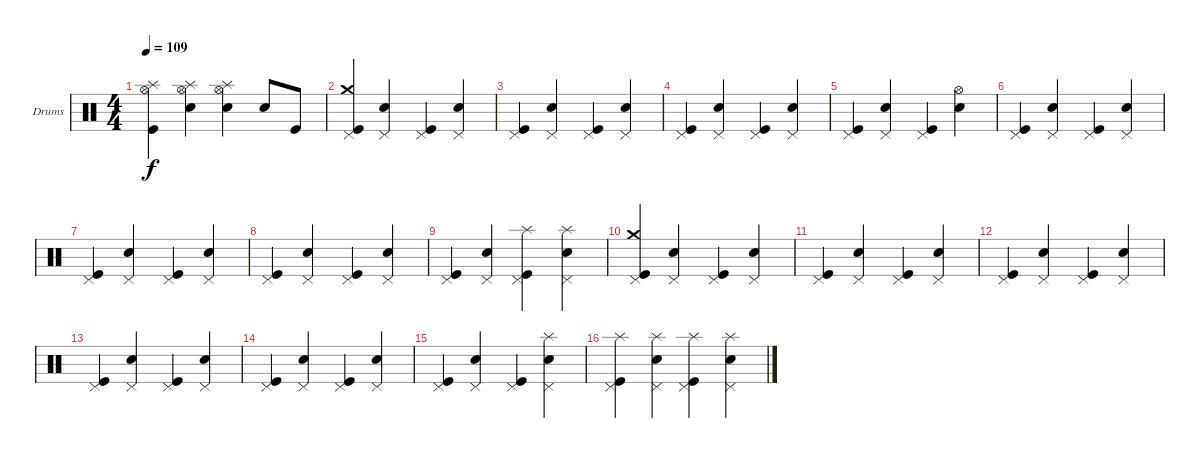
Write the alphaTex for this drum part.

\bracketExtendMode groupsimilarinstruments
\firstSystemTrackNameOrientation horizontal
\otherSystemsTrackNameOrientation horizontal
\track ("Drumkit" "Drums") {instrument percussion}
\staff {score}
\articulation defaults
\ts (4 4)
\tempo 109
\clef neutral
\ks c
("Splash (hit)" "Hi-Hat (open)" "Kick (hit)").4{dy f} ("Splash (hit)" "Hi-Hat (open)" "Snare (hit) 2").4 ("Splash (hit)" "Hi-Hat (open)" "Snare (hit) 2").4 "Snare (hit) 2".8 "Kick (hit)".8 |
("Crash medium (hit)" "Pedal Hi-Hat (hit)" "Kick (hit)").4 ("Pedal Hi-Hat (hit)" "Snare (hit) 2").4 ("Pedal Hi-Hat (hit)" "Kick (hit)").4 ("Pedal Hi-Hat (hit)" "Snare (hit) 2").4 |
("Pedal Hi-Hat (hit)" "Kick (hit)").4 ("Pedal Hi-Hat (hit)" "Snare (hit) 2").4 ("Pedal Hi-Hat (hit)" "Kick (hit)").4 ("Pedal Hi-Hat (hit)" "Snare (hit) 2").4 |
("Pedal Hi-Hat (hit)" "Kick (hit)").4 ("Pedal Hi-Hat (hit)" "Snare (hit) 2").4 ("Pedal Hi-Hat (hit)" "Kick (hit)").4 ("Pedal Hi-Hat (hit)" "Snare (hit) 2").4 |
("Pedal Hi-Hat (hit)" "Kick (hit)").4 ("Pedal Hi-Hat (hit)" "Snare (hit) 2").4 ("Pedal Hi-Hat (hit)" "Kick (hit)").4 ("Hi-Hat (open)" "Snare (hit) 2").4 |
("Pedal Hi-Hat (hit)" "Kick (hit)").4 ("Pedal Hi-Hat (hit)" "Snare (hit) 2").4 ("Pedal Hi-Hat (hit)" "Kick (hit)").4 ("Pedal Hi-Hat (hit)" "Snare (hit) 2").4 |
("Pedal Hi-Hat (hit)" "Kick (hit)").4 ("Pedal Hi-Hat (hit)" "Snare (hit) 2").4 ("Pedal Hi-Hat (hit)" "Kick (hit)").4 ("Pedal Hi-Hat (hit)" "Snare (hit) 2").4 |
("Pedal Hi-Hat (hit)" "Kick (hit)").4 ("Pedal Hi-Hat (hit)" "Snare (hit) 2").4 ("Pedal Hi-Hat (hit)" "Kick (hit)").4 ("Pedal Hi-Hat (hit)" "Snare (hit) 2").4 |
("Pedal Hi-Hat (hit)" "Kick (hit)").4 ("Pedal Hi-Hat (hit)" "Snare (hit) 2").4 ("Splash (hit)" "Pedal Hi-Hat (hit)" "Kick (hit)").4 ("Splash (hit)" "Pedal Hi-Hat (hit)" "Snare (hit) 2").4 |
("Crash medium (hit)" "Pedal Hi-Hat (hit)" "Kick (hit)").4 ("Pedal Hi-Hat (hit)" "Snare (hit) 2").4 ("Pedal Hi-Hat (hit)" "Kick (hit)").4 ("Pedal Hi-Hat (hit)" "Snare (hit) 2").4 |
("Pedal Hi-Hat (hit)" "Kick (hit)").4 ("Pedal Hi-Hat (hit)" "Snare (hit) 2").4 ("Pedal Hi-Hat (hit)" "Kick (hit)").4 ("Pedal Hi-Hat (hit)" "Snare (hit) 2").4 |
("Pedal Hi-Hat (hit)" "Kick (hit)").4 ("Pedal Hi-Hat (hit)" "Snare (hit) 2").4 ("Pedal Hi-Hat (hit)" "Kick (hit)").4 ("Pedal Hi-Hat (hit)" "Snare (hit) 2").4 |
("Pedal Hi-Hat (hit)" "Kick (hit)").4 ("Pedal Hi-Hat (hit)" "Snare (hit) 2").4 ("Pedal Hi-Hat (hit)" "Kick (hit)").4 ("Pedal Hi-Hat (hit)" "Snare (hit) 2").4 |
("Pedal Hi-Hat (hit)" "Kick (hit)").4 ("Pedal Hi-Hat (hit)" "Snare (hit) 2").4 ("Pedal Hi-Hat (hit)" "Kick (hit)").4 ("Pedal Hi-Hat (hit)" "Snare (hit) 2").4 |
("Pedal Hi-Hat (hit)" "Kick (hit)").4 ("Pedal Hi-Hat (hit)" "Snare (hit) 2").4 ("Pedal Hi-Hat (hit)" "Kick (hit)").4 ("Splash (hit)" "Pedal Hi-Hat (hit)" "Snare (hit) 2").4 |
("Splash (hit)" "Pedal Hi-Hat (hit)" "Kick (hit)").4 ("Splash (hit)" "Pedal Hi-Hat (hit)" "Snare (hit) 2").4 ("Splash (hit)" "Pedal Hi-Hat (hit)" "Kick (hit)").4 ("Splash (hit)" "Pedal Hi-Hat (hit)" "Snare (hit) 2").4
